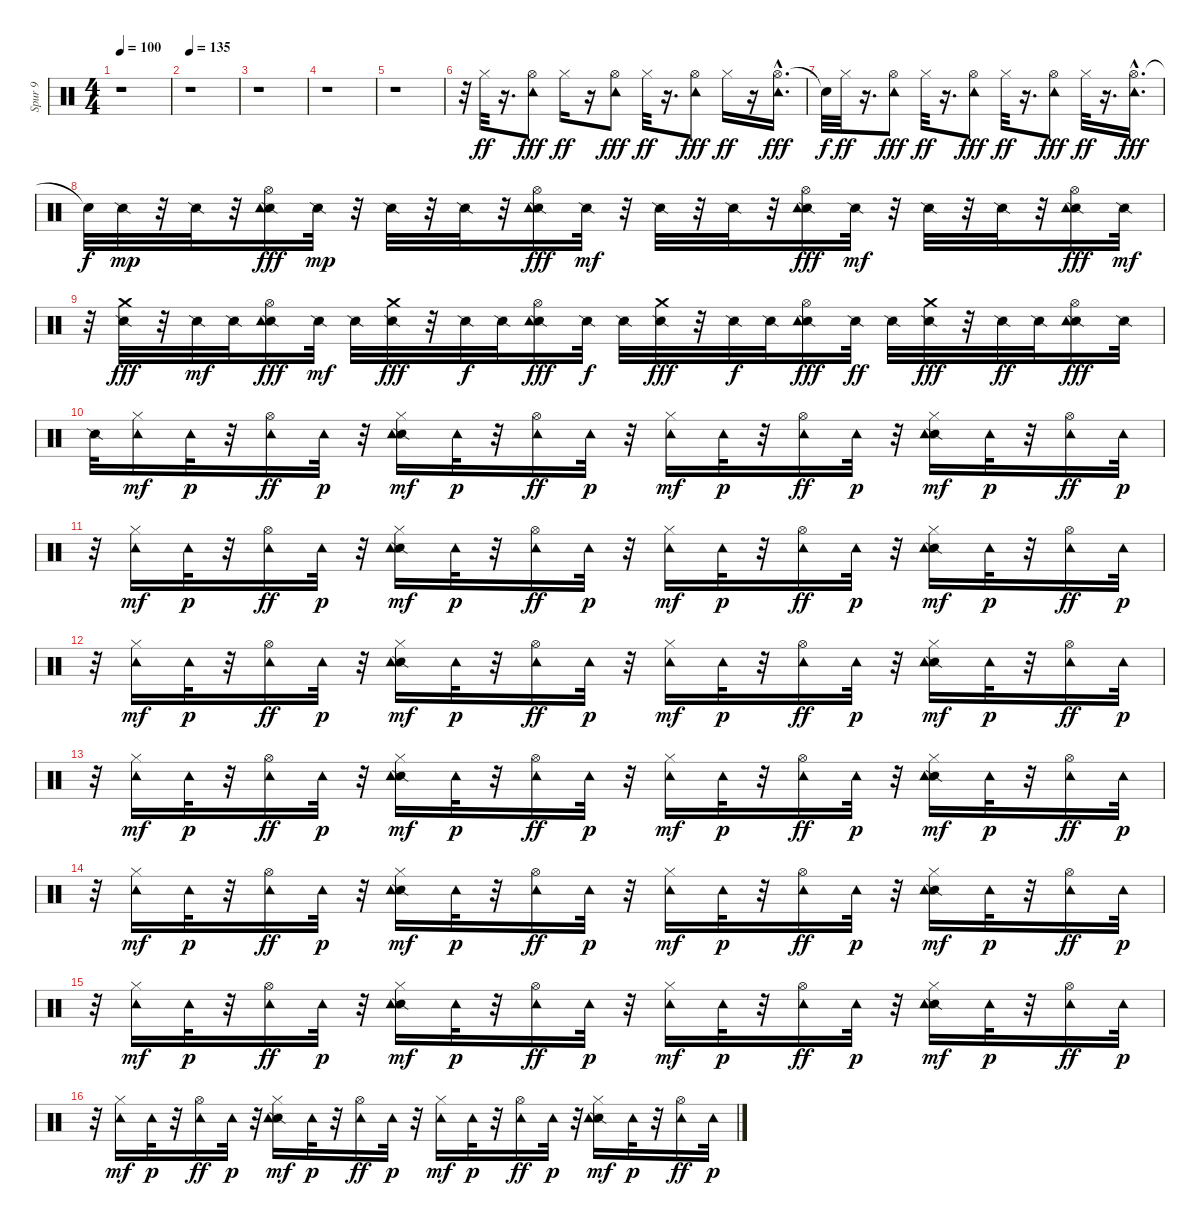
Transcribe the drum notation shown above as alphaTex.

\track ("Spur 9" "Spur 9") {instrument percussion}
\staff {score}
\articulation defaults
\ts (4 4)
\tempo 100
\clef neutral
\ks c
r.1{dy ff} |
\tempo 135
r.1 |
r.1 |
r.1 |
r.1 |
r.32 "Hi-Hat (closed)".32 r.16{d} ("Hi-Hat (open)" "Tambourine (hit)").8{dy fff} "Hi-Hat (closed)".16{dy ff} r.16 ("Hi-Hat (open)" "Tambourine (hit)").8{dy fff} "Hi-Hat (closed)".32{dy ff} r.16{d} ("Hi-Hat (open)" "Tambourine (hit)").8{dy fff} "Hi-Hat (closed)".16{dy ff} r.16 ("Hi-Hat (open)"{hac} "Tambourine (hit)").16{d dy fff} |
"Snare (hit)"{t}.32{dy f} "Hi-Hat (closed)".32{dy ff} r.16{d} ("Hi-Hat (open)" "Tambourine (hit)").8{dy fff} "Hi-Hat (closed)".32{dy ff} r.16{d} ("Hi-Hat (open)" "Tambourine (hit)").8{dy fff} "Hi-Hat (closed)".32{dy ff} r.16{d} ("Hi-Hat (open)" "Tambourine (hit)").8{dy fff} "Hi-Hat (closed)".32{dy ff} r.16{d} ("Hi-Hat (open)"{hac} "Tambourine (hit)").16{d dy fff} |
"Snare (hit)"{t}.32{dy f} "Snare (side stick) 2".32{dy mp} r.32 "Snare (side stick) 2".32 r.32 ("Snare (side stick) 2" "Hi-Hat (open)" "Tambourine (hit)").16{dy fff} "Snare (side stick) 2".32{dy mp} r.32 "Snare (side stick) 2".32 r.32 "Snare (side stick) 2".32 r.32 ("Snare (side stick) 2" "Hi-Hat (open)" "Tambourine (hit)").16{dy fff} "Snare (side stick) 2".32{dy mf} r.32 "Snare (side stick) 2".32 r.32 "Snare (side stick) 2".32 r.32 ("Snare (side stick) 2" "Hi-Hat (open)" "Tambourine (hit)").16{dy fff} "Snare (side stick) 2".32{dy mf} r.32 "Snare (side stick) 2".32 r.32 "Snare (side stick) 2".32 r.32 ("Snare (side stick) 2" "Hi-Hat (open)" "Tambourine (hit)").16{dy fff} "Snare (side stick) 2".32{dy mf} |
r.32 ("Snare (side stick) 2" "Crash medium (hit)").32{dy fff} r.32 "Snare (side stick) 2".32{dy mf} "Snare (side stick) 2".32 ("Snare (side stick) 2" "Hi-Hat (open)" "Tambourine (hit)").16{dy fff} "Snare (side stick) 2".32{dy mf} "Snare (side stick) 2".32 ("Snare (side stick) 2" "Crash medium (hit)").32{dy fff} r.32 "Snare (side stick) 2".32{dy f} "Snare (side stick) 2".32 ("Snare (side stick) 2" "Hi-Hat (open)" "Tambourine (hit)").16{dy fff} "Snare (side stick) 2".32{dy f} "Snare (side stick) 2".32 ("Snare (side stick) 2" "Crash medium (hit)").32{dy fff} r.32 "Snare (side stick) 2".32{dy f} "Snare (side stick) 2".32 ("Snare (side stick) 2" "Hi-Hat (open)" "Tambourine (hit)").16{dy fff} "Snare (side stick) 2".32{dy ff} "Snare (side stick) 2".32 ("Snare (side stick) 2" "Crash medium (hit)").32{dy fff} r.32 "Snare (side stick) 2".32{dy ff} "Snare (side stick) 2".32 ("Snare (side stick) 2" "Hi-Hat (open)" "Tambourine (hit)").16{dy fff} "Snare (side stick) 2".32 |
"Snare (side stick) 2".32 ("Hi-Hat (closed)" "Tambourine (hit)").16{dy mf} "Tambourine (hit)".32{dy p} r.32 ("Hi-Hat (open)" "Tambourine (hit)").16{dy ff} "Tambourine (hit)".32{dy p} r.32 ("Snare (side stick) 2" "Hi-Hat (closed)" "Tambourine (hit)").16{dy mf} "Tambourine (hit)".32{dy p} r.32 ("Hi-Hat (open)" "Tambourine (hit)").16{dy ff} "Tambourine (hit)".32{dy p} r.32 ("Hi-Hat (closed)" "Tambourine (hit)").16{dy mf} "Tambourine (hit)".32{dy p} r.32 ("Hi-Hat (open)" "Tambourine (hit)").16{dy ff} "Tambourine (hit)".32{dy p} r.32 ("Snare (side stick) 2" "Hi-Hat (closed)" "Tambourine (hit)").16{dy mf} "Tambourine (hit)".32{dy p} r.32 ("Hi-Hat (open)" "Tambourine (hit)").16{dy ff} "Tambourine (hit)".32{dy p} |
r.32 ("Hi-Hat (closed)" "Tambourine (hit)").16{dy mf} "Tambourine (hit)".32{dy p} r.32 ("Hi-Hat (open)" "Tambourine (hit)").16{dy ff} "Tambourine (hit)".32{dy p} r.32 ("Snare (side stick) 2" "Hi-Hat (closed)" "Tambourine (hit)").16{dy mf} "Tambourine (hit)".32{dy p} r.32 ("Hi-Hat (open)" "Tambourine (hit)").16{dy ff} "Tambourine (hit)".32{dy p} r.32 ("Hi-Hat (closed)" "Tambourine (hit)").16{dy mf} "Tambourine (hit)".32{dy p} r.32 ("Hi-Hat (open)" "Tambourine (hit)").16{dy ff} "Tambourine (hit)".32{dy p} r.32 ("Snare (side stick) 2" "Hi-Hat (closed)" "Tambourine (hit)").16{dy mf} "Tambourine (hit)".32{dy p} r.32 ("Hi-Hat (open)" "Tambourine (hit)").16{dy ff} "Tambourine (hit)".32{dy p} |
r.32 ("Hi-Hat (closed)" "Tambourine (hit)").16{dy mf} "Tambourine (hit)".32{dy p} r.32 ("Hi-Hat (open)" "Tambourine (hit)").16{dy ff} "Tambourine (hit)".32{dy p} r.32 ("Snare (side stick) 2" "Hi-Hat (closed)" "Tambourine (hit)").16{dy mf} "Tambourine (hit)".32{dy p} r.32 ("Hi-Hat (open)" "Tambourine (hit)").16{dy ff} "Tambourine (hit)".32{dy p} r.32 ("Hi-Hat (closed)" "Tambourine (hit)").16{dy mf} "Tambourine (hit)".32{dy p} r.32 ("Hi-Hat (open)" "Tambourine (hit)").16{dy ff} "Tambourine (hit)".32{dy p} r.32 ("Snare (side stick) 2" "Hi-Hat (closed)" "Tambourine (hit)").16{dy mf} "Tambourine (hit)".32{dy p} r.32 ("Hi-Hat (open)" "Tambourine (hit)").16{dy ff} "Tambourine (hit)".32{dy p} |
r.32 ("Hi-Hat (closed)" "Tambourine (hit)").16{dy mf} "Tambourine (hit)".32{dy p} r.32 ("Hi-Hat (open)" "Tambourine (hit)").16{dy ff} "Tambourine (hit)".32{dy p} r.32 ("Snare (side stick) 2" "Hi-Hat (closed)" "Tambourine (hit)").16{dy mf} "Tambourine (hit)".32{dy p} r.32 ("Hi-Hat (open)" "Tambourine (hit)").16{dy ff} "Tambourine (hit)".32{dy p} r.32 ("Hi-Hat (closed)" "Tambourine (hit)").16{dy mf} "Tambourine (hit)".32{dy p} r.32 ("Hi-Hat (open)" "Tambourine (hit)").16{dy ff} "Tambourine (hit)".32{dy p} r.32 ("Snare (side stick) 2" "Hi-Hat (closed)" "Tambourine (hit)").16{dy mf} "Tambourine (hit)".32{dy p} r.32 ("Hi-Hat (open)" "Tambourine (hit)").16{dy ff} "Tambourine (hit)".32{dy p} |
r.32 ("Hi-Hat (closed)" "Tambourine (hit)").16{dy mf} "Tambourine (hit)".32{dy p} r.32 ("Hi-Hat (open)" "Tambourine (hit)").16{dy ff} "Tambourine (hit)".32{dy p} r.32 ("Snare (side stick) 2" "Hi-Hat (closed)" "Tambourine (hit)").16{dy mf} "Tambourine (hit)".32{dy p} r.32 ("Hi-Hat (open)" "Tambourine (hit)").16{dy ff} "Tambourine (hit)".32{dy p} r.32 ("Hi-Hat (closed)" "Tambourine (hit)").16{dy mf} "Tambourine (hit)".32{dy p} r.32 ("Hi-Hat (open)" "Tambourine (hit)").16{dy ff} "Tambourine (hit)".32{dy p} r.32 ("Snare (side stick) 2" "Hi-Hat (closed)" "Tambourine (hit)").16{dy mf} "Tambourine (hit)".32{dy p} r.32 ("Hi-Hat (open)" "Tambourine (hit)").16{dy ff} "Tambourine (hit)".32{dy p} |
r.32 ("Hi-Hat (closed)" "Tambourine (hit)").16{dy mf} "Tambourine (hit)".32{dy p} r.32 ("Hi-Hat (open)" "Tambourine (hit)").16{dy ff} "Tambourine (hit)".32{dy p} r.32 ("Snare (side stick) 2" "Hi-Hat (closed)" "Tambourine (hit)").16{dy mf} "Tambourine (hit)".32{dy p} r.32 ("Hi-Hat (open)" "Tambourine (hit)").16{dy ff} "Tambourine (hit)".32{dy p} r.32 ("Hi-Hat (closed)" "Tambourine (hit)").16{dy mf} "Tambourine (hit)".32{dy p} r.32 ("Hi-Hat (open)" "Tambourine (hit)").16{dy ff} "Tambourine (hit)".32{dy p} r.32 ("Snare (side stick) 2" "Hi-Hat (closed)" "Tambourine (hit)").16{dy mf} "Tambourine (hit)".32{dy p} r.32 ("Hi-Hat (open)" "Tambourine (hit)").16{dy ff} "Tambourine (hit)".32{dy p} |
r.32 ("Hi-Hat (closed)" "Tambourine (hit)").16{dy mf} "Tambourine (hit)".32{dy p} r.32 ("Hi-Hat (open)" "Tambourine (hit)").16{dy ff} "Tambourine (hit)".32{dy p} r.32 ("Snare (side stick) 2" "Hi-Hat (closed)" "Tambourine (hit)").16{dy mf} "Tambourine (hit)".32{dy p} r.32 ("Hi-Hat (open)" "Tambourine (hit)").16{dy ff} "Tambourine (hit)".32{dy p} r.32 ("Hi-Hat (closed)" "Tambourine (hit)").16{dy mf} "Tambourine (hit)".32{dy p} r.32 ("Hi-Hat (open)" "Tambourine (hit)").16{dy ff} "Tambourine (hit)".32{dy p} r.32 ("Snare (side stick) 2" "Hi-Hat (closed)" "Tambourine (hit)").16{dy mf} "Tambourine (hit)".32{dy p} r.32 ("Hi-Hat (open)" "Tambourine (hit)").16{dy ff} "Tambourine (hit)".32{dy p}
